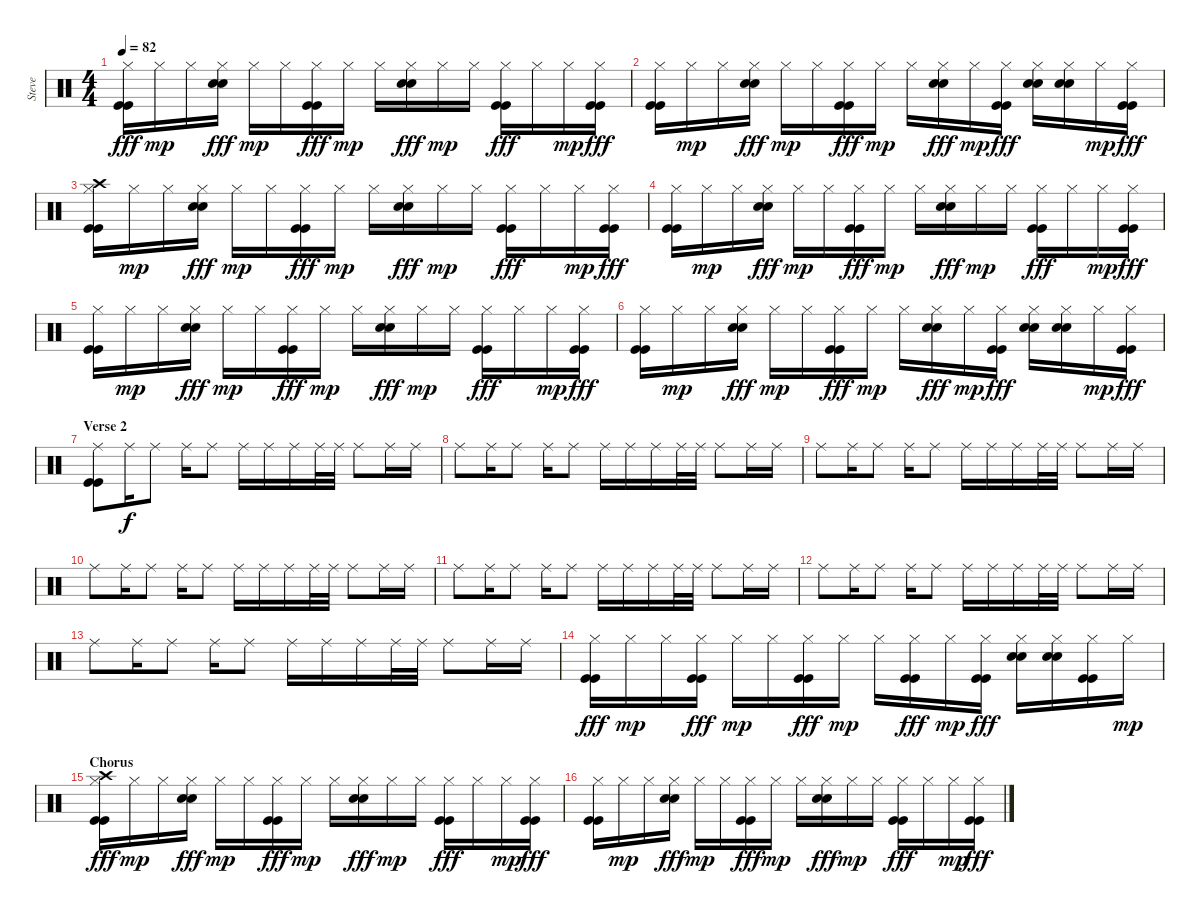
\track ("Steve" "Steve") {instrument percussion}
\staff {score}
\articulation defaults
\ts (4 4)
\tempo 82
\clef neutral
\ks c
("Hi-Hat (closed)" "Kick (hit)" "Kick (hit)").16{dy fff} "Hi-Hat (closed)".16{dy mp} "Hi-Hat (closed)".16 ("Hi-Hat (closed)" "Snare (hit) 2" "Snare (hit) 2").16{dy fff} "Hi-Hat (closed)".16{dy mp} "Hi-Hat (closed)".16 ("Hi-Hat (closed)" "Kick (hit)" "Kick (hit)").16{dy fff} "Hi-Hat (closed)".16{dy mp} "Hi-Hat (closed)".16 ("Hi-Hat (closed)" "Snare (hit) 2" "Snare (hit) 2").16{dy fff} "Hi-Hat (closed)".16{dy mp} "Hi-Hat (closed)".16 ("Hi-Hat (closed)" "Kick (hit)" "Kick (hit)").16{dy fff} "Hi-Hat (closed)".16 "Hi-Hat (closed)".16{dy mp} ("Hi-Hat (closed)" "Kick (hit)" "Kick (hit)").16{dy fff} |
("Hi-Hat (closed)" "Kick (hit)" "Kick (hit)").16 "Hi-Hat (closed)".16{dy mp} "Hi-Hat (closed)".16 ("Hi-Hat (closed)" "Snare (hit) 2" "Snare (hit) 2").16{dy fff} "Hi-Hat (closed)".16{dy mp} "Hi-Hat (closed)".16 ("Hi-Hat (closed)" "Kick (hit)" "Kick (hit)").16{dy fff} "Hi-Hat (closed)".16{dy mp} "Hi-Hat (closed)".16 ("Hi-Hat (closed)" "Snare (hit) 2" "Snare (hit) 2").16{dy fff} "Hi-Hat (closed)".16{dy mp} ("Hi-Hat (closed)" "Kick (hit)" "Kick (hit)").16{dy fff} ("Hi-Hat (closed)" "Snare (hit) 2" "Snare (hit) 2").16 ("Hi-Hat (closed)" "Snare (hit) 2" "Snare (hit) 2").16 "Hi-Hat (closed)".16{dy mp} ("Hi-Hat (closed)" "Kick (hit)" "Kick (hit)").16{dy fff} |
("Crash high (hit)" "Hi-Hat (closed)" "Kick (hit)" "Kick (hit)").16 "Hi-Hat (closed)".16{dy mp} "Hi-Hat (closed)".16 ("Hi-Hat (closed)" "Snare (hit) 2" "Snare (hit) 2").16{dy fff} "Hi-Hat (closed)".16{dy mp} "Hi-Hat (closed)".16 ("Hi-Hat (closed)" "Kick (hit)" "Kick (hit)").16{dy fff} "Hi-Hat (closed)".16{dy mp} "Hi-Hat (closed)".16 ("Hi-Hat (closed)" "Snare (hit) 2" "Snare (hit) 2").16{dy fff} "Hi-Hat (closed)".16{dy mp} "Hi-Hat (closed)".16 ("Hi-Hat (closed)" "Kick (hit)" "Kick (hit)").16{dy fff} "Hi-Hat (closed)".16 "Hi-Hat (closed)".16{dy mp} ("Hi-Hat (closed)" "Kick (hit)" "Kick (hit)").16{dy fff} |
("Hi-Hat (closed)" "Kick (hit)" "Kick (hit)").16 "Hi-Hat (closed)".16{dy mp} "Hi-Hat (closed)".16 ("Hi-Hat (closed)" "Snare (hit) 2" "Snare (hit) 2").16{dy fff} "Hi-Hat (closed)".16{dy mp} "Hi-Hat (closed)".16 ("Hi-Hat (closed)" "Kick (hit)" "Kick (hit)").16{dy fff} "Hi-Hat (closed)".16{dy mp} "Hi-Hat (closed)".16 ("Hi-Hat (closed)" "Snare (hit) 2" "Snare (hit) 2").16{dy fff} "Hi-Hat (closed)".16{dy mp} "Hi-Hat (closed)".16 ("Hi-Hat (closed)" "Kick (hit)" "Kick (hit)").16{dy fff} "Hi-Hat (closed)".16 "Hi-Hat (closed)".16{dy mp} ("Hi-Hat (closed)" "Kick (hit)" "Kick (hit)").16{dy fff} |
("Hi-Hat (closed)" "Kick (hit)" "Kick (hit)").16 "Hi-Hat (closed)".16{dy mp} "Hi-Hat (closed)".16 ("Hi-Hat (closed)" "Snare (hit) 2" "Snare (hit) 2").16{dy fff} "Hi-Hat (closed)".16{dy mp} "Hi-Hat (closed)".16 ("Hi-Hat (closed)" "Kick (hit)" "Kick (hit)").16{dy fff} "Hi-Hat (closed)".16{dy mp} "Hi-Hat (closed)".16 ("Hi-Hat (closed)" "Snare (hit) 2" "Snare (hit) 2").16{dy fff} "Hi-Hat (closed)".16{dy mp} "Hi-Hat (closed)".16 ("Hi-Hat (closed)" "Kick (hit)" "Kick (hit)").16{dy fff} "Hi-Hat (closed)".16 "Hi-Hat (closed)".16{dy mp} ("Hi-Hat (closed)" "Kick (hit)" "Kick (hit)").16{dy fff} |
("Hi-Hat (closed)" "Kick (hit)" "Kick (hit)").16 "Hi-Hat (closed)".16{dy mp} "Hi-Hat (closed)".16 ("Hi-Hat (closed)" "Snare (hit) 2" "Snare (hit) 2").16{dy fff} "Hi-Hat (closed)".16{dy mp} "Hi-Hat (closed)".16 ("Hi-Hat (closed)" "Kick (hit)" "Kick (hit)").16{dy fff} "Hi-Hat (closed)".16{dy mp} "Hi-Hat (closed)".16 ("Hi-Hat (closed)" "Snare (hit) 2" "Snare (hit) 2").16{dy fff} "Hi-Hat (closed)".16{dy mp} ("Hi-Hat (closed)" "Kick (hit)" "Kick (hit)").16{dy fff} ("Hi-Hat (closed)" "Snare (hit) 2" "Snare (hit) 2").16 ("Hi-Hat (closed)" "Snare (hit) 2" "Snare (hit) 2").16 "Hi-Hat (closed)".16{dy mp} ("Hi-Hat (closed)" "Kick (hit)" "Kick (hit)").16{dy fff} |
\section ("" "Verse 2")
("Ride (middle)" "Kick (hit)" "Kick (hit)").8 "Ride (middle)".16{dy f} "Ride (middle)".8 "Ride (middle)".16 "Ride (middle)".8 "Ride (middle)".16 "Ride (middle)".16 "Ride (middle)".16 "Ride (middle)".32 "Ride (middle)".32 "Ride (middle)".8 "Ride (middle)".16 "Ride (middle)".16 |
"Ride (middle)".8 "Ride (middle)".16 "Ride (middle)".8 "Ride (middle)".16 "Ride (middle)".8 "Ride (middle)".16 "Ride (middle)".16 "Ride (middle)".16 "Ride (middle)".32 "Ride (middle)".32 "Ride (middle)".8 "Ride (middle)".16 "Ride (middle)".16 |
"Ride (middle)".8 "Ride (middle)".16 "Ride (middle)".8 "Ride (middle)".16 "Ride (middle)".8 "Ride (middle)".16 "Ride (middle)".16 "Ride (middle)".16 "Ride (middle)".32 "Ride (middle)".32 "Ride (middle)".8 "Ride (middle)".16 "Ride (middle)".16 |
"Ride (middle)".8 "Ride (middle)".16 "Ride (middle)".8 "Ride (middle)".16 "Ride (middle)".8 "Ride (middle)".16 "Ride (middle)".16 "Ride (middle)".16 "Ride (middle)".32 "Ride (middle)".32 "Ride (middle)".8 "Ride (middle)".16 "Ride (middle)".16 |
"Ride (middle)".8 "Ride (middle)".16 "Ride (middle)".8 "Ride (middle)".16 "Ride (middle)".8 "Ride (middle)".16 "Ride (middle)".16 "Ride (middle)".16 "Ride (middle)".32 "Ride (middle)".32 "Ride (middle)".8 "Ride (middle)".16 "Ride (middle)".16 |
"Ride (middle)".8 "Ride (middle)".16 "Ride (middle)".8 "Ride (middle)".16 "Ride (middle)".8 "Ride (middle)".16 "Ride (middle)".16 "Ride (middle)".16 "Ride (middle)".32 "Ride (middle)".32 "Ride (middle)".8 "Ride (middle)".16 "Ride (middle)".16 |
"Ride (middle)".8 "Ride (middle)".16 "Ride (middle)".8 "Ride (middle)".16 "Ride (middle)".8 "Ride (middle)".16 "Ride (middle)".16 "Ride (middle)".16 "Ride (middle)".32 "Ride (middle)".32 "Ride (middle)".8 "Ride (middle)".16 "Ride (middle)".16 |
("Hi-Hat (closed)" "Kick (hit)" "Kick (hit)").16{dy fff} "Hi-Hat (closed)".16{dy mp} "Hi-Hat (closed)".16 ("Hi-Hat (closed)" "Kick (hit)" "Kick (hit)").16{dy fff} "Hi-Hat (closed)".16{dy mp} "Hi-Hat (closed)".16 ("Hi-Hat (closed)" "Kick (hit)" "Kick (hit)").16{dy fff} "Hi-Hat (closed)".16{dy mp} "Hi-Hat (closed)".16 ("Hi-Hat (closed)" "Kick (hit)" "Kick (hit)").16{dy fff} "Hi-Hat (closed)".16{dy mp} ("Hi-Hat (closed)" "Kick (hit)" "Kick (hit)").16{dy fff} ("Hi-Hat (closed)" "Snare (hit) 2" "Snare (hit) 2").16 ("Hi-Hat (closed)" "Snare (hit) 2" "Snare (hit) 2").16 ("Hi-Hat (closed)" "Kick (hit)" "Kick (hit)").16 "Hi-Hat (closed)".16{dy mp} |
\section ("" "Chorus")
("Crash high (hit)" "Hi-Hat (closed)" "Kick (hit)" "Kick (hit)").16{dy fff} "Hi-Hat (closed)".16{dy mp} "Hi-Hat (closed)".16 ("Hi-Hat (closed)" "Snare (hit) 2" "Snare (hit) 2").16{dy fff} "Hi-Hat (closed)".16{dy mp} "Hi-Hat (closed)".16 ("Hi-Hat (closed)" "Kick (hit)" "Kick (hit)").16{dy fff} "Hi-Hat (closed)".16{dy mp} "Hi-Hat (closed)".16 ("Hi-Hat (closed)" "Snare (hit) 2" "Snare (hit) 2").16{dy fff} "Hi-Hat (closed)".16{dy mp} "Hi-Hat (closed)".16 ("Hi-Hat (closed)" "Kick (hit)" "Kick (hit)").16{dy fff} "Hi-Hat (closed)".16 "Hi-Hat (closed)".16{dy mp} ("Hi-Hat (closed)" "Kick (hit)" "Kick (hit)").16{dy fff} |
("Hi-Hat (closed)" "Kick (hit)" "Kick (hit)").16 "Hi-Hat (closed)".16{dy mp} "Hi-Hat (closed)".16 ("Hi-Hat (closed)" "Snare (hit) 2" "Snare (hit) 2").16{dy fff} "Hi-Hat (closed)".16{dy mp} "Hi-Hat (closed)".16 ("Hi-Hat (closed)" "Kick (hit)" "Kick (hit)").16{dy fff} "Hi-Hat (closed)".16{dy mp} "Hi-Hat (closed)".16 ("Hi-Hat (closed)" "Snare (hit) 2" "Snare (hit) 2").16{dy fff} "Hi-Hat (closed)".16{dy mp} "Hi-Hat (closed)".16 ("Hi-Hat (closed)" "Kick (hit)" "Kick (hit)").16{dy fff} "Hi-Hat (closed)".16 "Hi-Hat (closed)".16{dy mp} ("Hi-Hat (closed)" "Kick (hit)" "Kick (hit)").16{dy fff}
